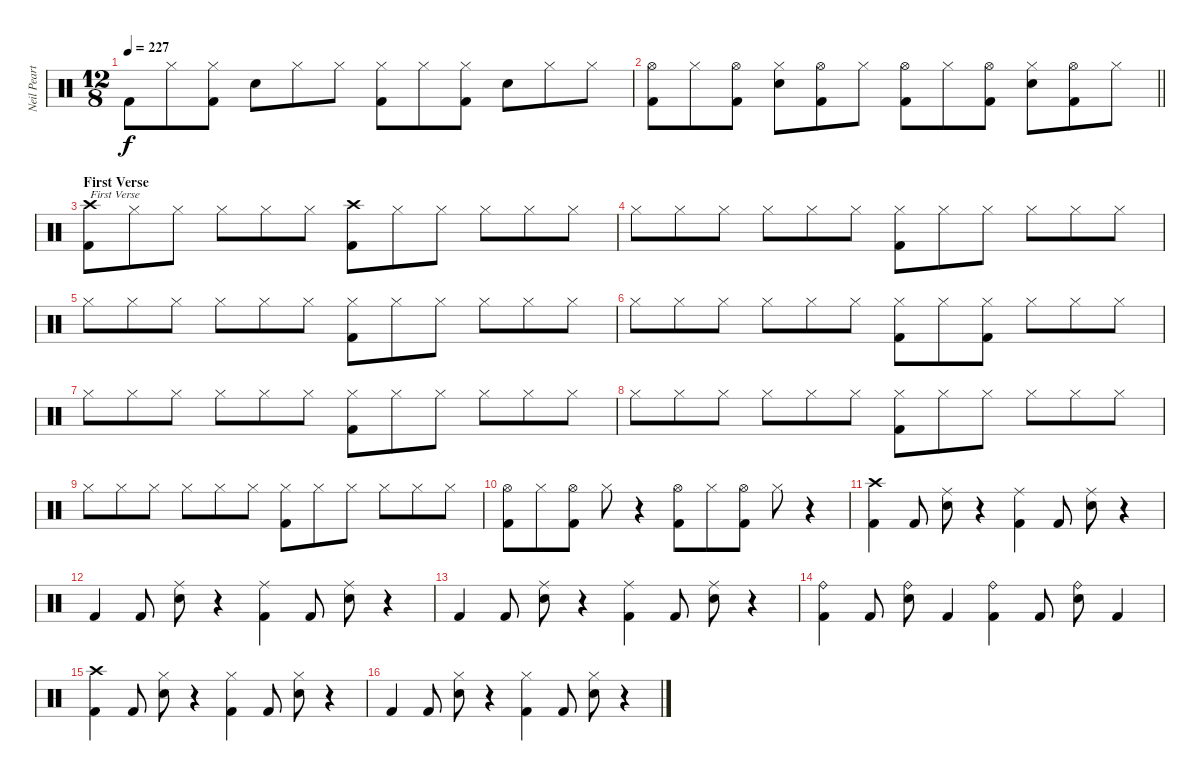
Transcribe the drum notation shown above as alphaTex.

\track ("Neil Peart" "Neil Peart") {instrument percussion}
\staff {score}
\articulation defaults
\ts (12 8)
\tempo 227
\clef neutral
\ks c "Kick (hit) 2".8{dy f} "Hi-Hat (closed)".8
("Hi-Hat (closed)" "Kick (hit) 2").8 "Electric Snare (hit)".8 "Hi-Hat (closed)".8 "Hi-Hat (closed)".8 ("Hi-Hat (closed)" "Kick (hit) 2").8 "Hi-Hat (closed)".8 ("Hi-Hat (closed)" "Kick (hit) 2").8 "Electric Snare (hit)".8 "Hi-Hat (closed)".8 "Hi-Hat (closed)".8 |
\barLineRight lightlight
("Hi-Hat (open)" "Kick (hit) 2").8 "Hi-Hat (closed)".8 ("Hi-Hat (open)" "Kick (hit) 2").8 ("Electric Snare (hit)" "Hi-Hat (closed)").8 ("Hi-Hat (open)" "Kick (hit) 2").8 "Hi-Hat (closed)".8 ("Hi-Hat (open)" "Kick (hit) 2").8 "Hi-Hat (closed)".8 ("Hi-Hat (open)" "Kick (hit) 2").8 ("Electric Snare (hit)" "Hi-Hat (closed)").8 ("Hi-Hat (open)" "Kick (hit) 2").8 "Hi-Hat (closed)".8 |
\section ("" "First Verse")
("Crash high (hit)" "Kick (hit) 2").8{txt "First Verse"} "Hi-Hat (closed)".8 "Hi-Hat (closed)".8 "Hi-Hat (closed)".8 "Hi-Hat (closed)".8 "Hi-Hat (closed)".8 ("Crash high (hit)" "Kick (hit) 2").8 "Hi-Hat (closed)".8 "Hi-Hat (closed)".8 "Hi-Hat (closed)".8 "Hi-Hat (closed)".8 "Hi-Hat (closed)".8 |
"Hi-Hat (closed)".8 "Hi-Hat (closed)".8 "Hi-Hat (closed)".8 "Hi-Hat (closed)".8 "Hi-Hat (closed)".8 "Hi-Hat (closed)".8 ("Hi-Hat (closed)" "Kick (hit) 2").8 "Hi-Hat (closed)".8 "Hi-Hat (closed)".8 "Hi-Hat (closed)".8 "Hi-Hat (closed)".8 "Hi-Hat (closed)".8 |
"Hi-Hat (closed)".8 "Hi-Hat (closed)".8 "Hi-Hat (closed)".8 "Hi-Hat (closed)".8 "Hi-Hat (closed)".8 "Hi-Hat (closed)".8 ("Hi-Hat (closed)" "Kick (hit) 2").8 "Hi-Hat (closed)".8 "Hi-Hat (closed)".8 "Hi-Hat (closed)".8 "Hi-Hat (closed)".8 "Hi-Hat (closed)".8 |
"Hi-Hat (closed)".8 "Hi-Hat (closed)".8 "Hi-Hat (closed)".8 "Hi-Hat (closed)".8 "Hi-Hat (closed)".8 "Hi-Hat (closed)".8 ("Hi-Hat (closed)" "Kick (hit) 2").8 "Hi-Hat (closed)".8 ("Hi-Hat (closed)" "Kick (hit) 2").8 "Hi-Hat (closed)".8 "Hi-Hat (closed)".8 "Hi-Hat (closed)".8 |
"Hi-Hat (closed)".8 "Hi-Hat (closed)".8 "Hi-Hat (closed)".8 "Hi-Hat (closed)".8 "Hi-Hat (closed)".8 "Hi-Hat (closed)".8 ("Hi-Hat (closed)" "Kick (hit) 2").8 "Hi-Hat (closed)".8 "Hi-Hat (closed)".8 "Hi-Hat (closed)".8 "Hi-Hat (closed)".8 "Hi-Hat (closed)".8 |
"Hi-Hat (closed)".8 "Hi-Hat (closed)".8 "Hi-Hat (closed)".8 "Hi-Hat (closed)".8 "Hi-Hat (closed)".8 "Hi-Hat (closed)".8 ("Hi-Hat (closed)" "Kick (hit) 2").8 "Hi-Hat (closed)".8 "Hi-Hat (closed)".8 "Hi-Hat (closed)".8 "Hi-Hat (closed)".8 "Hi-Hat (closed)".8 |
"Hi-Hat (closed)".8 "Hi-Hat (closed)".8 "Hi-Hat (closed)".8 "Hi-Hat (closed)".8 "Hi-Hat (closed)".8 "Hi-Hat (closed)".8 ("Hi-Hat (closed)" "Kick (hit) 2").8 "Hi-Hat (closed)".8 "Hi-Hat (closed)".8 "Hi-Hat (closed)".8 "Hi-Hat (closed)".8 "Hi-Hat (closed)".8 |
("Hi-Hat (open)" "Kick (hit) 2").8 "Hi-Hat (closed)".8 ("Hi-Hat (open)" "Kick (hit) 2").8 "Hi-Hat (closed)".8 r.4 ("Hi-Hat (open)" "Kick (hit) 2").8 "Hi-Hat (closed)".8 ("Hi-Hat (open)" "Kick (hit) 2").8 "Hi-Hat (closed)".8 r.4 |
("Crash high (hit)" "Kick (hit) 2").4 "Kick (hit) 2".8 ("Electric Snare (hit)" "Ride (middle)").8 r.4 ("Ride (middle)" "Kick (hit) 2").4 "Kick (hit) 2".8 ("Electric Snare (hit)" "Ride (middle)").8 r.4 |
"Kick (hit) 2".4 "Kick (hit) 2".8 ("Electric Snare (hit)" "Ride (middle)").8 r.4 ("Ride (middle)" "Kick (hit) 2").4 "Kick (hit) 2".8 ("Electric Snare (hit)" "Ride (middle)").8 r.4 |
"Kick (hit) 2".4 "Kick (hit) 2".8 ("Electric Snare (hit)" "Ride (middle)").8 r.4 ("Ride (middle)" "Kick (hit) 2").4 "Kick (hit) 2".8 ("Electric Snare (hit)" "Ride (middle)").8 r.4 |
("Ride (bell)" "Kick (hit) 2").4 "Kick (hit) 2".8 ("Electric Snare (hit)" "Ride (bell)").8 "Kick (hit) 2".4 ("Ride (bell)" "Kick (hit) 2").4 "Kick (hit) 2".8 ("Electric Snare (hit)" "Ride (bell)").8 "Kick (hit) 2".4 |
("Crash high (hit)" "Kick (hit) 2").4 "Kick (hit) 2".8 ("Electric Snare (hit)" "Hi-Hat (closed)").8 r.4 ("Hi-Hat (closed)" "Kick (hit) 2").4 "Kick (hit) 2".8 ("Electric Snare (hit)" "Hi-Hat (closed)").8 r.4 |
"Kick (hit) 2".4 "Kick (hit) 2".8 ("Electric Snare (hit)" "Hi-Hat (closed)").8 r.4 ("Hi-Hat (closed)" "Kick (hit) 2").4 "Kick (hit) 2".8 ("Electric Snare (hit)" "Hi-Hat (closed)").8 r.4
